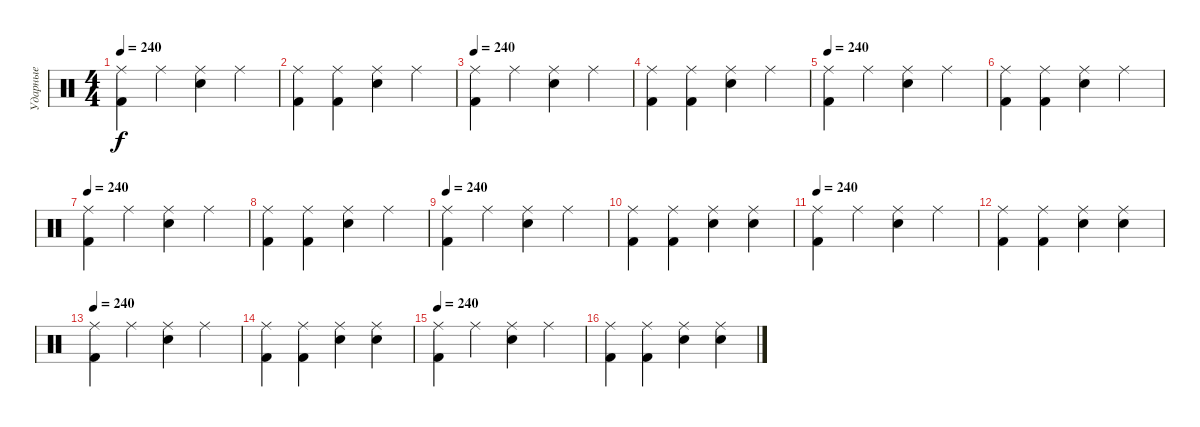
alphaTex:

\track ("Ударные" "Ударные") {instrument percussion}
\staff {score}
\articulation defaults
\ts (4 4)
\tempo 240
\clef neutral
\ks c
("Ride (middle)" "Kick (hit) 2").4{dy f} "Ride (middle)".4 ("Ride (middle)" "Electric Snare (hit)").4 "Ride (middle)".4 |
("Ride (middle)" "Kick (hit) 2").4 ("Ride (middle)" "Kick (hit) 2").4 ("Ride (middle)" "Electric Snare (hit)").4 "Ride (middle)".4 |
\tempo 240
("Ride (middle)" "Kick (hit) 2").4 "Ride (middle)".4 ("Ride (middle)" "Electric Snare (hit)").4 "Ride (middle)".4 |
("Ride (middle)" "Kick (hit) 2").4 ("Ride (middle)" "Kick (hit) 2").4 ("Ride (middle)" "Electric Snare (hit)").4 "Ride (middle)".4 |
\tempo 240
("Ride (middle)" "Kick (hit) 2").4 "Ride (middle)".4 ("Ride (middle)" "Electric Snare (hit)").4 "Ride (middle)".4 |
("Ride (middle)" "Kick (hit) 2").4 ("Ride (middle)" "Kick (hit) 2").4 ("Ride (middle)" "Electric Snare (hit)").4 "Ride (middle)".4 |
\tempo 240
("Ride (middle)" "Kick (hit) 2").4 "Ride (middle)".4 ("Ride (middle)" "Electric Snare (hit)").4 "Ride (middle)".4 |
("Ride (middle)" "Kick (hit) 2").4 ("Ride (middle)" "Kick (hit) 2").4 ("Ride (middle)" "Electric Snare (hit)").4 "Ride (middle)".4 |
\tempo 240
("Ride (middle)" "Kick (hit) 2").4 "Ride (middle)".4 ("Ride (middle)" "Electric Snare (hit)").4 "Ride (middle)".4 |
("Ride (middle)" "Kick (hit) 2").4 ("Ride (middle)" "Kick (hit) 2").4 ("Ride (middle)" "Electric Snare (hit)").4 ("Ride (middle)" "Electric Snare (hit)").4 |
\tempo 240
("Ride (middle)" "Kick (hit) 2").4 "Ride (middle)".4 ("Ride (middle)" "Electric Snare (hit)").4 "Ride (middle)".4 |
("Ride (middle)" "Kick (hit) 2").4 ("Ride (middle)" "Kick (hit) 2").4 ("Ride (middle)" "Electric Snare (hit)").4 ("Ride (middle)" "Electric Snare (hit)").4 |
\tempo 240
("Ride (middle)" "Kick (hit) 2").4 "Ride (middle)".4 ("Ride (middle)" "Electric Snare (hit)").4 "Ride (middle)".4 |
("Ride (middle)" "Kick (hit) 2").4 ("Ride (middle)" "Kick (hit) 2").4 ("Ride (middle)" "Electric Snare (hit)").4 ("Ride (middle)" "Electric Snare (hit)").4 |
\tempo 240
("Ride (middle)" "Kick (hit) 2").4 "Ride (middle)".4 ("Ride (middle)" "Electric Snare (hit)").4 "Ride (middle)".4 |
("Ride (middle)" "Kick (hit) 2").4 ("Ride (middle)" "Kick (hit) 2").4 ("Ride (middle)" "Electric Snare (hit)").4 ("Ride (middle)" "Electric Snare (hit)").4
